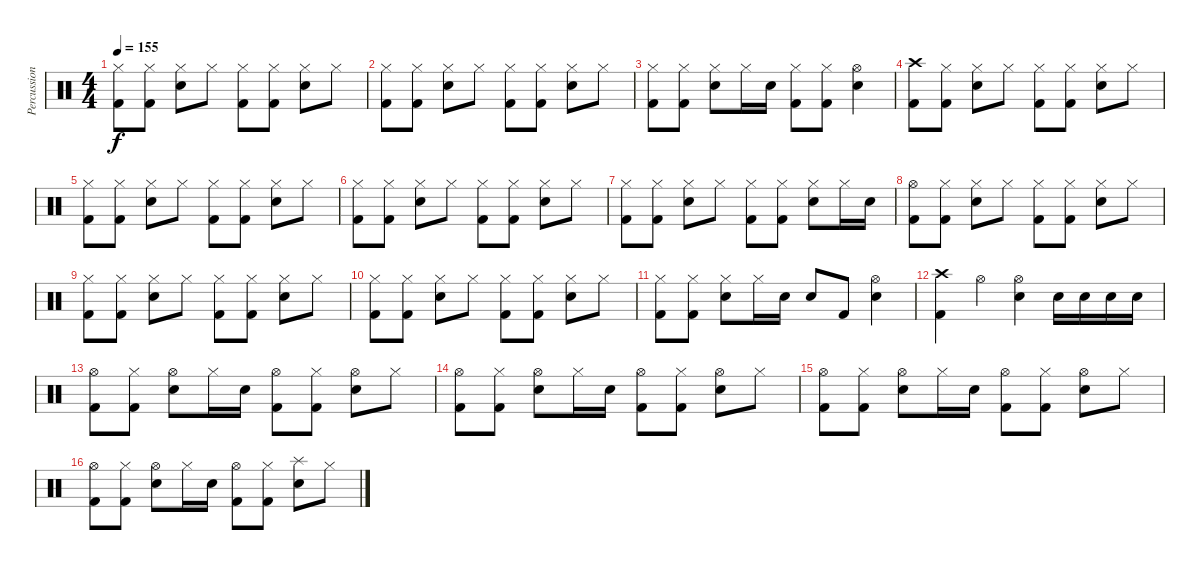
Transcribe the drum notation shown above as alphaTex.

\track ("Percussion" "Percussion") {instrument percussion}
\staff {score}
\articulation defaults
\ts (4 4)
\tempo 155
\clef neutral
\ks c
("Hi-Hat (closed)" "Kick (hit) 2").8{dy f} ("Hi-Hat (closed)" "Kick (hit) 2").8 ("Hi-Hat (closed)" "Snare (hit) 2").8 "Hi-Hat (closed)".8 ("Hi-Hat (closed)" "Kick (hit) 2").8 ("Hi-Hat (closed)" "Kick (hit) 2").8 ("Hi-Hat (closed)" "Snare (hit) 2").8 "Hi-Hat (closed)".8 |
("Hi-Hat (closed)" "Kick (hit) 2").8 ("Hi-Hat (closed)" "Kick (hit) 2").8 ("Hi-Hat (closed)" "Snare (hit) 2").8 "Hi-Hat (closed)".8 ("Hi-Hat (closed)" "Kick (hit) 2").8 ("Hi-Hat (closed)" "Kick (hit) 2").8 ("Hi-Hat (closed)" "Snare (hit) 2").8 "Hi-Hat (closed)".8 |
("Hi-Hat (closed)" "Kick (hit) 2").8 ("Hi-Hat (closed)" "Kick (hit) 2").8 ("Hi-Hat (closed)" "Snare (hit) 2").8 "Hi-Hat (closed)".16 "Snare (hit) 2".16 ("Hi-Hat (closed)" "Kick (hit) 2").8 ("Hi-Hat (closed)" "Kick (hit) 2").8 ("Hi-Hat (open)" "Snare (hit) 2").4 |
("Crash high (hit)" "Kick (hit) 2").8 ("Hi-Hat (closed)" "Kick (hit) 2").8 ("Hi-Hat (closed)" "Snare (hit) 2").8 "Hi-Hat (closed)".8 ("Hi-Hat (closed)" "Kick (hit) 2").8 ("Hi-Hat (closed)" "Kick (hit) 2").8 ("Hi-Hat (closed)" "Snare (hit) 2").8 "Hi-Hat (closed)".8 |
("Hi-Hat (closed)" "Kick (hit) 2").8 ("Hi-Hat (closed)" "Kick (hit) 2").8 ("Hi-Hat (closed)" "Snare (hit) 2").8 "Hi-Hat (closed)".8 ("Hi-Hat (closed)" "Kick (hit) 2").8 ("Hi-Hat (closed)" "Kick (hit) 2").8 ("Hi-Hat (closed)" "Snare (hit) 2").8 "Hi-Hat (closed)".8 |
("Hi-Hat (closed)" "Kick (hit) 2").8 ("Hi-Hat (closed)" "Kick (hit) 2").8 ("Hi-Hat (closed)" "Snare (hit) 2").8 "Hi-Hat (closed)".8 ("Hi-Hat (closed)" "Kick (hit) 2").8 ("Hi-Hat (closed)" "Kick (hit) 2").8 ("Hi-Hat (closed)" "Snare (hit) 2").8 "Hi-Hat (closed)".8 |
("Hi-Hat (closed)" "Kick (hit) 2").8 ("Hi-Hat (closed)" "Kick (hit) 2").8 ("Hi-Hat (closed)" "Snare (hit) 2").8 "Hi-Hat (closed)".8 ("Hi-Hat (closed)" "Kick (hit) 2").8 ("Hi-Hat (closed)" "Kick (hit) 2").8 ("Hi-Hat (closed)" "Snare (hit) 2").8 "Hi-Hat (closed)".16 "Snare (hit) 2".16 |
("Hi-Hat (open)" "Kick (hit) 2").8 ("Hi-Hat (closed)" "Kick (hit) 2").8 ("Hi-Hat (closed)" "Snare (hit) 2").8 "Hi-Hat (closed)".8 ("Hi-Hat (closed)" "Kick (hit) 2").8 ("Hi-Hat (closed)" "Kick (hit) 2").8 ("Hi-Hat (closed)" "Snare (hit) 2").8 "Hi-Hat (closed)".8 |
("Hi-Hat (closed)" "Kick (hit) 2").8 ("Hi-Hat (closed)" "Kick (hit) 2").8 ("Hi-Hat (closed)" "Snare (hit) 2").8 "Hi-Hat (closed)".8 ("Hi-Hat (closed)" "Kick (hit) 2").8 ("Hi-Hat (closed)" "Kick (hit) 2").8 ("Hi-Hat (closed)" "Snare (hit) 2").8 "Hi-Hat (closed)".8 |
("Hi-Hat (closed)" "Kick (hit) 2").8 ("Hi-Hat (closed)" "Kick (hit) 2").8 ("Hi-Hat (closed)" "Snare (hit) 2").8 "Hi-Hat (closed)".8 ("Hi-Hat (closed)" "Kick (hit) 2").8 ("Hi-Hat (closed)" "Kick (hit) 2").8 ("Hi-Hat (closed)" "Snare (hit) 2").8 "Hi-Hat (closed)".8 |
("Hi-Hat (closed)" "Kick (hit) 2").8 ("Hi-Hat (closed)" "Kick (hit) 2").8 ("Hi-Hat (closed)" "Snare (hit) 2").8 "Hi-Hat (closed)".16 "Snare (hit) 2".16 "Snare (hit) 2".8 "Kick (hit) 2".8 ("Hi-Hat (open)" "Snare (hit) 2").4 |
("Crash high (hit)" "Kick (hit) 2").4 "Hi-Hat (open)".4 ("Hi-Hat (open)" "Snare (hit) 2").4 "Snare (hit) 2".16 "Snare (hit) 2".16 "Snare (hit) 2".16 "Snare (hit) 2".16 |
("Hi-Hat (open)" "Kick (hit) 2").8 ("Hi-Hat (closed)" "Kick (hit) 2").8 ("Hi-Hat (open)" "Snare (hit) 2").8 "Hi-Hat (closed)".16 "Snare (hit) 2".16 ("Hi-Hat (open)" "Kick (hit) 2").8 ("Hi-Hat (closed)" "Kick (hit) 2").8 ("Hi-Hat (open)" "Snare (hit) 2").8 "Hi-Hat (closed)".8 |
("Hi-Hat (open)" "Kick (hit) 2").8 ("Hi-Hat (closed)" "Kick (hit) 2").8 ("Hi-Hat (open)" "Snare (hit) 2").8 "Hi-Hat (closed)".16 "Snare (hit) 2".16 ("Hi-Hat (open)" "Kick (hit) 2").8 ("Hi-Hat (closed)" "Kick (hit) 2").8 ("Hi-Hat (open)" "Snare (hit) 2").8 "Hi-Hat (closed)".8 |
("Hi-Hat (open)" "Kick (hit) 2").8 ("Hi-Hat (closed)" "Kick (hit) 2").8 ("Hi-Hat (open)" "Snare (hit) 2").8 "Hi-Hat (closed)".16 "Snare (hit) 2".16 ("Hi-Hat (open)" "Kick (hit) 2").8 ("Hi-Hat (closed)" "Kick (hit) 2").8 ("Hi-Hat (open)" "Snare (hit) 2").8 "Hi-Hat (closed)".8 |
("Hi-Hat (open)" "Kick (hit) 2").8 ("Hi-Hat (closed)" "Kick (hit) 2").8 ("Hi-Hat (open)" "Snare (hit) 2").8 "Hi-Hat (closed)".16 "Snare (hit) 2".16 ("Hi-Hat (open)" "Kick (hit) 2").8 ("Hi-Hat (closed)" "Kick (hit) 2").8 ("Splash (hit)" "Snare (hit) 2").8 "Hi-Hat (closed)".8
